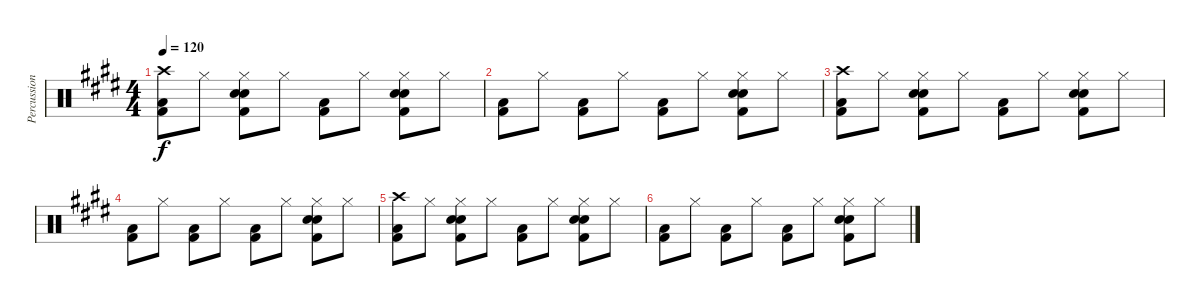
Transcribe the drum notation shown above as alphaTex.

\track ("Percussion" "Percussion") {instrument percussion}
\staff {score}
\articulation defaults
\ts (4 4)
\tempo 120
\clef neutral
\ks e
("Crash high (hit)" "Kick (hit) 2" "Low Floor Tom (hit)").8{dy f} "Hi-Hat (closed)".8 ("Kick (hit) 2" "Hand Clap (hit)" "Snare (hit) 2" "Hi-Hat (closed)").8 "Hi-Hat (closed)".8 ("Kick (hit) 2" "Low Floor Tom (hit)").8 "Hi-Hat (closed)".8 ("Kick (hit) 2" "Hand Clap (hit)" "Snare (hit) 2" "Hi-Hat (closed)").8 "Hi-Hat (closed)".8 |
("Kick (hit) 2" "Low Floor Tom (hit)").8 "Hi-Hat (closed)".8 ("Kick (hit) 2" "Low Floor Tom (hit)").8 "Hi-Hat (closed)".8 ("Kick (hit) 2" "Low Floor Tom (hit)").8 "Hi-Hat (closed)".8 ("Kick (hit) 2" "Hand Clap (hit)" "Snare (hit) 2" "Hi-Hat (closed)").8 "Hi-Hat (closed)".8 |
("Crash high (hit)" "Kick (hit) 2" "Low Floor Tom (hit)").8{volume 0} "Hi-Hat (closed)".8 ("Kick (hit) 2" "Hand Clap (hit)" "Snare (hit) 2" "Hi-Hat (closed)").8 "Hi-Hat (closed)".8 ("Kick (hit) 2" "Low Floor Tom (hit)").8 "Hi-Hat (closed)".8 ("Kick (hit) 2" "Hand Clap (hit)" "Snare (hit) 2" "Hi-Hat (closed)").8 "Hi-Hat (closed)".8 |
("Kick (hit) 2" "Low Floor Tom (hit)").8 "Hi-Hat (closed)".8 ("Kick (hit) 2" "Low Floor Tom (hit)").8 "Hi-Hat (closed)".8 ("Kick (hit) 2" "Low Floor Tom (hit)").8 "Hi-Hat (closed)".8 ("Kick (hit) 2" "Hand Clap (hit)" "Snare (hit) 2" "Hi-Hat (closed)").8 "Hi-Hat (closed)".8 |
("Crash high (hit)" "Kick (hit) 2" "Low Floor Tom (hit)").8 "Hi-Hat (closed)".8 ("Kick (hit) 2" "Hand Clap (hit)" "Snare (hit) 2" "Hi-Hat (closed)").8 "Hi-Hat (closed)".8 ("Kick (hit) 2" "Low Floor Tom (hit)").8 "Hi-Hat (closed)".8 ("Kick (hit) 2" "Hand Clap (hit)" "Snare (hit) 2" "Hi-Hat (closed)").8 "Hi-Hat (closed)".8 |
("Kick (hit) 2" "Low Floor Tom (hit)").8 "Hi-Hat (closed)".8 ("Kick (hit) 2" "Low Floor Tom (hit)").8 "Hi-Hat (closed)".8 ("Kick (hit) 2" "Low Floor Tom (hit)").8 "Hi-Hat (closed)".8 ("Kick (hit) 2" "Hand Clap (hit)" "Snare (hit) 2" "Hi-Hat (closed)").8 "Hi-Hat (closed)".8
